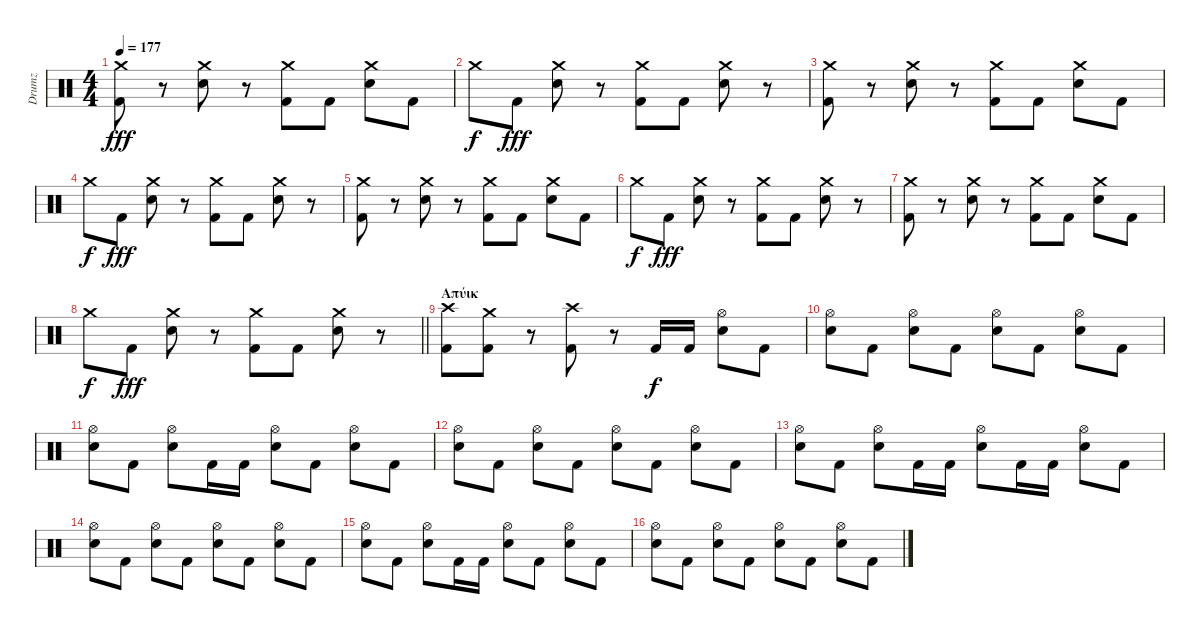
\track ("Drumz" "Drumz") {instrument percussion}
\staff {score}
\articulation defaults
\ts (4 4)
\tempo 177
\clef neutral
\ks c
("Crash medium (hit)" "Kick (hit) 2").8{dy fff} r.8 ("Crash medium (hit)" "Snare (hit) 2").8 r.8 ("Kick (hit) 2" "Crash medium (hit)").8 "Kick (hit) 2".8 ("Crash medium (hit)" "Snare (hit) 2").8 "Kick (hit) 2".8 |
"Crash medium (hit)".8{dy f} "Kick (hit) 2".8{dy fff} ("Crash medium (hit)" "Snare (hit) 2").8 r.8 ("Crash medium (hit)" "Kick (hit) 2").8 "Kick (hit) 2".8 ("Crash medium (hit)" "Snare (hit) 2").8 r.8 |
("Crash medium (hit)" "Kick (hit) 2").8 r.8 ("Crash medium (hit)" "Snare (hit) 2").8 r.8 ("Kick (hit) 2" "Crash medium (hit)").8 "Kick (hit) 2".8 ("Crash medium (hit)" "Snare (hit) 2").8 "Kick (hit) 2".8 |
"Crash medium (hit)".8{dy f} "Kick (hit) 2".8{dy fff} ("Crash medium (hit)" "Snare (hit) 2").8 r.8 ("Crash medium (hit)" "Kick (hit) 2").8 "Kick (hit) 2".8 ("Crash medium (hit)" "Snare (hit) 2").8 r.8 |
("Crash medium (hit)" "Kick (hit) 2").8 r.8 ("Crash medium (hit)" "Snare (hit) 2").8 r.8 ("Kick (hit) 2" "Crash medium (hit)").8 "Kick (hit) 2".8 ("Crash medium (hit)" "Snare (hit) 2").8 "Kick (hit) 2".8 |
"Crash medium (hit)".8{dy f} "Kick (hit) 2".8{dy fff} ("Crash medium (hit)" "Snare (hit) 2").8 r.8 ("Crash medium (hit)" "Kick (hit) 2").8 "Kick (hit) 2".8 ("Crash medium (hit)" "Snare (hit) 2").8 r.8 |
("Crash medium (hit)" "Kick (hit) 2").8 r.8 ("Crash medium (hit)" "Snare (hit) 2").8 r.8 ("Kick (hit) 2" "Crash medium (hit)").8 "Kick (hit) 2".8 ("Crash medium (hit)" "Snare (hit) 2").8 "Kick (hit) 2".8 |
\barLineRight lightlight "Crash medium (hit)".8{dy f} "Kick (hit) 2".8{dy fff}
("Crash medium (hit)" "Snare (hit) 2").8 r.8 ("Crash medium (hit)" "Kick (hit) 2").8 "Kick (hit) 2".8 ("Crash medium (hit)" "Snare (hit) 2").8 r.8 |
\section ("" "Απύικ")
("Kick (hit) 2" "Crash high (hit)").8 ("Kick (hit) 2" "Crash medium (hit)").8 r.8 ("Crash high (hit)" "Kick (hit) 2").8 r.8 "Kick (hit) 2".16{dy f} "Kick (hit) 2".16 ("Hi-Hat (open)" "Snare (hit) 2").8 "Kick (hit) 2".8 |
("Hi-Hat (open)" "Snare (hit) 2").8 "Kick (hit) 2".8 ("Hi-Hat (open)" "Snare (hit) 2").8 "Kick (hit) 2".8 ("Hi-Hat (open)" "Snare (hit) 2").8 "Kick (hit) 2".8 ("Hi-Hat (open)" "Snare (hit) 2").8 "Kick (hit) 2".8 |
("Hi-Hat (open)" "Snare (hit) 2").8 "Kick (hit) 2".8 ("Hi-Hat (open)" "Snare (hit) 2").8 "Kick (hit) 2".16 "Kick (hit) 2".16 ("Hi-Hat (open)" "Snare (hit) 2").8 "Kick (hit) 2".8 ("Snare (hit) 2" "Hi-Hat (open)").8 "Kick (hit) 2".8 |
("Snare (hit) 2" "Hi-Hat (open)").8 "Kick (hit) 2".8 ("Snare (hit) 2" "Hi-Hat (open)").8 "Kick (hit) 2".8 ("Snare (hit) 2" "Hi-Hat (open)").8 "Kick (hit) 2".8 ("Snare (hit) 2" "Hi-Hat (open)").8 "Kick (hit) 2".8 |
("Hi-Hat (open)" "Snare (hit) 2").8 "Kick (hit) 2".8 ("Hi-Hat (open)" "Snare (hit) 2").8 "Kick (hit) 2".16 "Kick (hit) 2".16 ("Hi-Hat (open)" "Snare (hit) 2").8 "Kick (hit) 2".16 "Kick (hit) 2".16 ("Snare (hit) 2" "Hi-Hat (open)").8 "Kick (hit) 2".8 |
("Snare (hit) 2" "Hi-Hat (open)").8 "Kick (hit) 2".8 ("Snare (hit) 2" "Hi-Hat (open)").8 "Kick (hit) 2".8 ("Snare (hit) 2" "Hi-Hat (open)").8 "Kick (hit) 2".8 ("Snare (hit) 2" "Hi-Hat (open)").8 "Kick (hit) 2".8 |
("Hi-Hat (open)" "Snare (hit) 2").8 "Kick (hit) 2".8 ("Hi-Hat (open)" "Snare (hit) 2").8 "Kick (hit) 2".16 "Kick (hit) 2".16 ("Hi-Hat (open)" "Snare (hit) 2").8 "Kick (hit) 2".8 ("Snare (hit) 2" "Hi-Hat (open)").8 "Kick (hit) 2".8 |
("Snare (hit) 2" "Hi-Hat (open)").8 "Kick (hit) 2".8 ("Snare (hit) 2" "Hi-Hat (open)").8 "Kick (hit) 2".8 ("Snare (hit) 2" "Hi-Hat (open)").8 "Kick (hit) 2".8 ("Snare (hit) 2" "Hi-Hat (open)").8 "Kick (hit) 2".8
